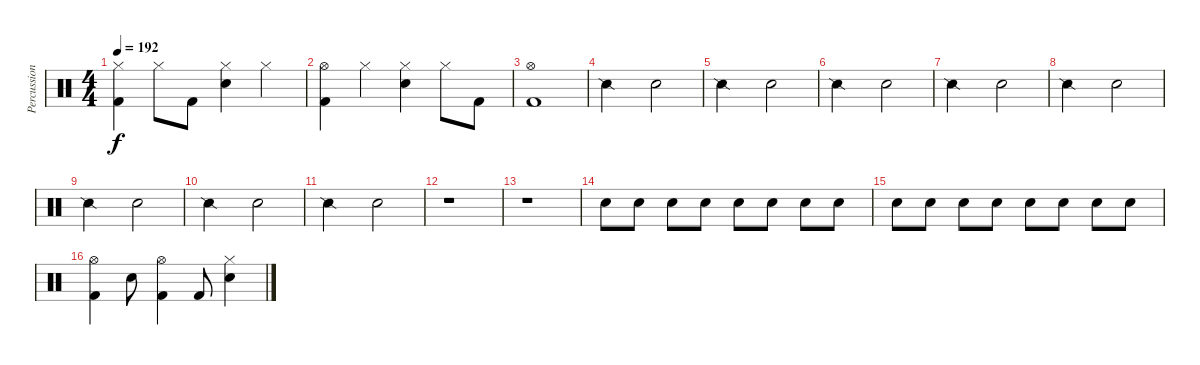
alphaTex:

\track ("Percussions" "Percussion") {instrument percussion}
\staff {score}
\articulation defaults
\ts (4 4)
\tempo 192
\clef neutral
\ks c
("Kick (hit) 2" "Hi-Hat (closed)").4{dy f} "Hi-Hat (closed)".8 "Kick (hit) 2".8 ("Electric Snare (hit)" "Hi-Hat (closed)").4 "Hi-Hat (closed)".4 |
("Kick (hit) 2" "Hi-Hat (open)").4 "Hi-Hat (closed)".4 ("Electric Snare (hit)" "Hi-Hat (closed)").4 "Hi-Hat (closed)".8 "Kick (hit) 2".8 |
("Kick (hit) 2" "Hi-Hat (open)").1 |
"Snare (side stick) 2".2{volume 10} "Hand Clap (hit)".2 |
"Snare (side stick) 2".2 "Hand Clap (hit)".2 |
"Snare (side stick) 2".2 "Hand Clap (hit)".2 |
"Snare (side stick) 2".2 "Hand Clap (hit)".2 |
"Snare (side stick) 2".2 "Hand Clap (hit)".2 |
"Snare (side stick) 2".2 "Hand Clap (hit)".2 |
"Snare (side stick) 2".2 "Hand Clap (hit)".2 |
"Snare (side stick) 2".2 "Hand Clap (hit)".2 |
r.1 |
r.1{volume 4} |
"Electric Snare (hit)".8{volume 12} "Electric Snare (hit)".8 "Electric Snare (hit)".8 "Electric Snare (hit)".8 "Electric Snare (hit)".8 "Electric Snare (hit)".8 "Electric Snare (hit)".8 "Electric Snare (hit)".8 |
"Electric Snare (hit)".8 "Electric Snare (hit)".8 "Electric Snare (hit)".8 "Electric Snare (hit)".8 "Electric Snare (hit)".8 "Electric Snare (hit)".8 "Electric Snare (hit)".8 "Electric Snare (hit)".8 |
("Kick (hit) 2" "Hi-Hat (open)").4 "Electric Snare (hit)".8 ("Kick (hit) 2" "Hi-Hat (open)").4 "Kick (hit) 2".8 ("Electric Snare (hit)" "Hi-Hat (closed)").4
